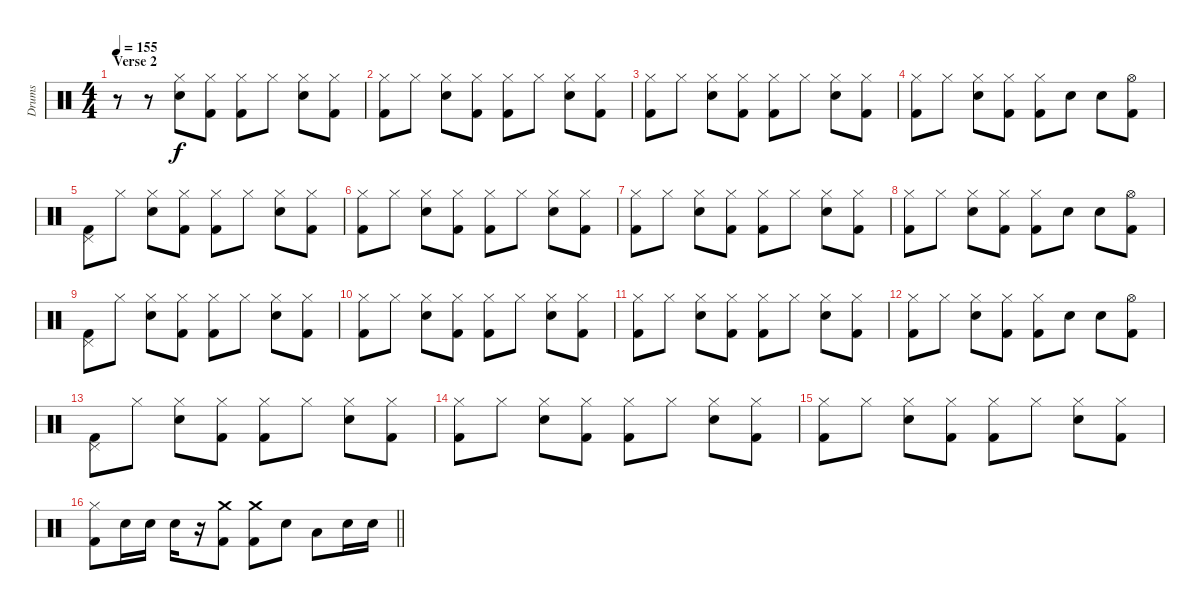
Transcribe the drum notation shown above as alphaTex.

\track ("Drums" "Drums") {instrument percussion}
\staff {score}
\articulation defaults
\ts (4 4)
\section ("" "Verse 2")
\tempo 155
\clef neutral
\ks c
r.8{dy f} r.8 ("Hi-Hat (closed)" "Snare (hit) 2").8 ("Hi-Hat (closed)" "Kick (hit) 2").8 ("Hi-Hat (closed)" "Kick (hit) 2").8 "Hi-Hat (closed)".8 ("Hi-Hat (closed)" "Snare (hit) 2").8 ("Hi-Hat (closed)" "Kick (hit) 2").8 |
("Hi-Hat (closed)" "Kick (hit) 2").8 "Hi-Hat (closed)".8 ("Hi-Hat (closed)" "Snare (hit) 2").8 ("Hi-Hat (closed)" "Kick (hit) 2").8 ("Hi-Hat (closed)" "Kick (hit) 2").8 "Hi-Hat (closed)".8 ("Hi-Hat (closed)" "Snare (hit) 2").8 ("Hi-Hat (closed)" "Kick (hit) 2").8 |
("Hi-Hat (closed)" "Kick (hit) 2").8 "Hi-Hat (closed)".8 ("Hi-Hat (closed)" "Snare (hit) 2").8 ("Hi-Hat (closed)" "Kick (hit) 2").8 ("Hi-Hat (closed)" "Kick (hit) 2").8 "Hi-Hat (closed)".8 ("Hi-Hat (closed)" "Snare (hit) 2").8 ("Hi-Hat (closed)" "Kick (hit) 2").8 |
("Hi-Hat (closed)" "Kick (hit) 2").8 "Hi-Hat (closed)".8 ("Hi-Hat (closed)" "Snare (hit) 2").8 ("Hi-Hat (closed)" "Kick (hit) 2").8 ("Hi-Hat (closed)" "Kick (hit) 2").8 "Snare (hit) 2".8 "Snare (hit) 2".8 ("Hi-Hat (open)" "Kick (hit) 2").8 |
("Pedal Hi-Hat (hit)" "Kick (hit) 2").8 "Hi-Hat (closed)".8 ("Hi-Hat (closed)" "Snare (hit) 2").8 ("Hi-Hat (closed)" "Kick (hit) 2").8 ("Hi-Hat (closed)" "Kick (hit) 2").8 "Hi-Hat (closed)".8 ("Hi-Hat (closed)" "Snare (hit) 2").8 ("Hi-Hat (closed)" "Kick (hit) 2").8 |
("Hi-Hat (closed)" "Kick (hit) 2").8 "Hi-Hat (closed)".8 ("Hi-Hat (closed)" "Snare (hit) 2").8 ("Hi-Hat (closed)" "Kick (hit) 2").8 ("Hi-Hat (closed)" "Kick (hit) 2").8 "Hi-Hat (closed)".8 ("Hi-Hat (closed)" "Snare (hit) 2").8 ("Hi-Hat (closed)" "Kick (hit) 2").8 |
("Hi-Hat (closed)" "Kick (hit) 2").8 "Hi-Hat (closed)".8 ("Hi-Hat (closed)" "Snare (hit) 2").8 ("Hi-Hat (closed)" "Kick (hit) 2").8 ("Hi-Hat (closed)" "Kick (hit) 2").8 "Hi-Hat (closed)".8 ("Hi-Hat (closed)" "Snare (hit) 2").8 ("Hi-Hat (closed)" "Kick (hit) 2").8 |
("Hi-Hat (closed)" "Kick (hit) 2").8 "Hi-Hat (closed)".8 ("Hi-Hat (closed)" "Snare (hit) 2").8 ("Hi-Hat (closed)" "Kick (hit) 2").8 ("Hi-Hat (closed)" "Kick (hit) 2").8 "Snare (hit) 2".8 "Snare (hit) 2".8 ("Hi-Hat (open)" "Kick (hit) 2").8 |
("Pedal Hi-Hat (hit)" "Kick (hit) 2").8 "Hi-Hat (closed)".8 ("Hi-Hat (closed)" "Snare (hit) 2").8 ("Hi-Hat (closed)" "Kick (hit) 2").8 ("Hi-Hat (closed)" "Kick (hit) 2").8 "Hi-Hat (closed)".8 ("Hi-Hat (closed)" "Snare (hit) 2").8 ("Hi-Hat (closed)" "Kick (hit) 2").8 |
("Hi-Hat (closed)" "Kick (hit) 2").8 "Hi-Hat (closed)".8 ("Hi-Hat (closed)" "Snare (hit) 2").8 ("Hi-Hat (closed)" "Kick (hit) 2").8 ("Hi-Hat (closed)" "Kick (hit) 2").8 "Hi-Hat (closed)".8 ("Hi-Hat (closed)" "Snare (hit) 2").8 ("Hi-Hat (closed)" "Kick (hit) 2").8 |
("Hi-Hat (closed)" "Kick (hit) 2").8 "Hi-Hat (closed)".8 ("Hi-Hat (closed)" "Snare (hit) 2").8 ("Hi-Hat (closed)" "Kick (hit) 2").8 ("Hi-Hat (closed)" "Kick (hit) 2").8 "Hi-Hat (closed)".8 ("Hi-Hat (closed)" "Snare (hit) 2").8 ("Hi-Hat (closed)" "Kick (hit) 2").8 |
("Hi-Hat (closed)" "Kick (hit) 2").8 "Hi-Hat (closed)".8 ("Hi-Hat (closed)" "Snare (hit) 2").8 ("Hi-Hat (closed)" "Kick (hit) 2").8 ("Hi-Hat (closed)" "Kick (hit) 2").8 "Snare (hit) 2".8 "Snare (hit) 2".8 ("Hi-Hat (open)" "Kick (hit) 2").8 |
("Pedal Hi-Hat (hit)" "Kick (hit) 2").8 "Hi-Hat (closed)".8 ("Hi-Hat (closed)" "Snare (hit) 2").8 ("Hi-Hat (closed)" "Kick (hit) 2").8 ("Hi-Hat (closed)" "Kick (hit) 2").8 "Hi-Hat (closed)".8 ("Hi-Hat (closed)" "Snare (hit) 2").8 ("Hi-Hat (closed)" "Kick (hit) 2").8 |
("Hi-Hat (closed)" "Kick (hit) 2").8 "Hi-Hat (closed)".8 ("Hi-Hat (closed)" "Snare (hit) 2").8 ("Hi-Hat (closed)" "Kick (hit) 2").8 ("Hi-Hat (closed)" "Kick (hit) 2").8 "Hi-Hat (closed)".8 ("Hi-Hat (closed)" "Snare (hit) 2").8 ("Hi-Hat (closed)" "Kick (hit) 2").8 |
("Hi-Hat (closed)" "Kick (hit) 2").8 "Hi-Hat (closed)".8 ("Hi-Hat (closed)" "Snare (hit) 2").8 ("Hi-Hat (closed)" "Kick (hit) 2").8 ("Hi-Hat (closed)" "Kick (hit) 2").8 "Hi-Hat (closed)".8 ("Hi-Hat (closed)" "Snare (hit) 2").8 ("Hi-Hat (closed)" "Kick (hit) 2").8 |
\barLineRight lightlight
("Hi-Hat (closed)" "Kick (hit) 2").8 "Snare (hit) 2".16 "Snare (hit) 2".16 "Snare (hit) 2".16 r.16 ("Crash medium (hit)" "Kick (hit) 2").8 ("Crash medium (hit)" "Kick (hit) 2").8 "Snare (hit) 2".8 "Low Tom (hit)".8 "Snare (hit) 2".16 "Snare (hit) 2".16
